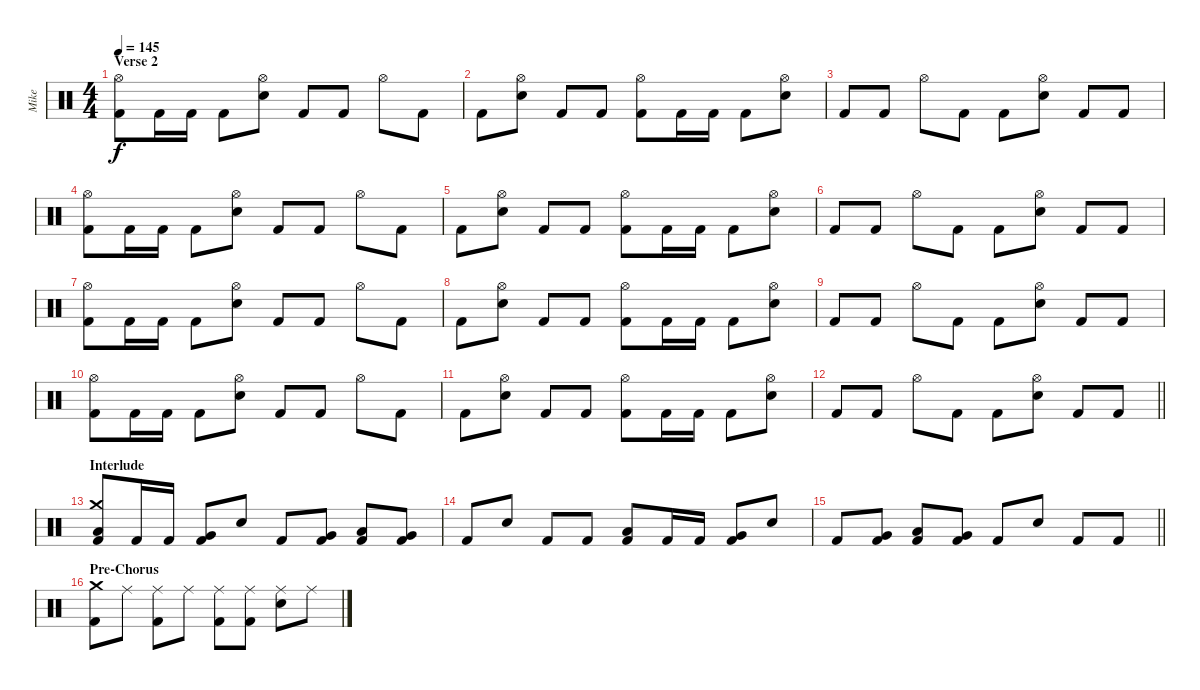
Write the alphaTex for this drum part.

\track ("Mike" "Mike") {instrument percussion}
\staff {score}
\articulation defaults
\ts (4 4)
\section ("" "Verse 2")
\tempo 145
\clef neutral
\ks c
("Hi-Hat (open)" "Kick (hit) 2").8{dy f} "Kick (hit) 2".16 "Kick (hit) 2".16 "Kick (hit) 2".8 ("Hi-Hat (open)" "Snare (hit) 2").8 "Kick (hit) 2".8 "Kick (hit) 2".8 "Hi-Hat (open)".8 "Kick (hit) 2".8 |
"Kick (hit) 2".8 ("Hi-Hat (open)" "Snare (hit) 2").8 "Kick (hit) 2".8 "Kick (hit) 2".8 ("Hi-Hat (open)" "Kick (hit) 2").8 "Kick (hit) 2".16 "Kick (hit) 2".16 "Kick (hit) 2".8 ("Hi-Hat (open)" "Snare (hit) 2").8 |
"Kick (hit) 2".8 "Kick (hit) 2".8 "Hi-Hat (open)".8 "Kick (hit) 2".8 "Kick (hit) 2".8 ("Hi-Hat (open)" "Snare (hit) 2").8 "Kick (hit) 2".8 "Kick (hit) 2".8 |
("Hi-Hat (open)" "Kick (hit) 2").8 "Kick (hit) 2".16 "Kick (hit) 2".16 "Kick (hit) 2".8 ("Hi-Hat (open)" "Snare (hit) 2").8 "Kick (hit) 2".8 "Kick (hit) 2".8 "Hi-Hat (open)".8 "Kick (hit) 2".8 |
"Kick (hit) 2".8 ("Hi-Hat (open)" "Snare (hit) 2").8 "Kick (hit) 2".8 "Kick (hit) 2".8 ("Hi-Hat (open)" "Kick (hit) 2").8 "Kick (hit) 2".16 "Kick (hit) 2".16 "Kick (hit) 2".8 ("Hi-Hat (open)" "Snare (hit) 2").8 |
"Kick (hit) 2".8 "Kick (hit) 2".8 "Hi-Hat (open)".8 "Kick (hit) 2".8 "Kick (hit) 2".8 ("Hi-Hat (open)" "Snare (hit) 2").8 "Kick (hit) 2".8 "Kick (hit) 2".8 |
("Hi-Hat (open)" "Kick (hit) 2").8 "Kick (hit) 2".16 "Kick (hit) 2".16 "Kick (hit) 2".8 ("Hi-Hat (open)" "Snare (hit) 2").8 "Kick (hit) 2".8 "Kick (hit) 2".8 "Hi-Hat (open)".8 "Kick (hit) 2".8 |
"Kick (hit) 2".8 ("Hi-Hat (open)" "Snare (hit) 2").8 "Kick (hit) 2".8 "Kick (hit) 2".8 ("Hi-Hat (open)" "Kick (hit) 2").8 "Kick (hit) 2".16 "Kick (hit) 2".16 "Kick (hit) 2".8 ("Hi-Hat (open)" "Snare (hit) 2").8 |
"Kick (hit) 2".8 "Kick (hit) 2".8 "Hi-Hat (open)".8 "Kick (hit) 2".8 "Kick (hit) 2".8 ("Hi-Hat (open)" "Snare (hit) 2").8 "Kick (hit) 2".8 "Kick (hit) 2".8 |
("Hi-Hat (open)" "Kick (hit) 2").8 "Kick (hit) 2".16 "Kick (hit) 2".16 "Kick (hit) 2".8 ("Hi-Hat (open)" "Snare (hit) 2").8 "Kick (hit) 2".8 "Kick (hit) 2".8 "Hi-Hat (open)".8 "Kick (hit) 2".8 |
"Kick (hit) 2".8 ("Hi-Hat (open)" "Snare (hit) 2").8 "Kick (hit) 2".8 "Kick (hit) 2".8 ("Hi-Hat (open)" "Kick (hit) 2").8 "Kick (hit) 2".16 "Kick (hit) 2".16 "Kick (hit) 2".8 ("Hi-Hat (open)" "Snare (hit) 2").8 |
\barLineRight lightlight "Kick (hit) 2".8 "Kick (hit) 2".8 "Hi-Hat (open)".8 "Kick (hit) 2".8 "Kick (hit) 2".8
("Hi-Hat (open)" "Snare (hit) 2").8 "Kick (hit) 2".8 "Kick (hit) 2".8 |
\section ("" "Interlude")
("Crash medium (hit)" "Low Tom (hit)" "Kick (hit) 2").8 "Kick (hit) 2".16 "Kick (hit) 2".16 ("Very Low Tom (hit)" "Kick (hit) 2").8 "Snare (hit) 2".8 "Kick (hit) 2".8 ("Very Low Tom (hit)" "Kick (hit) 2").8 ("Low Floor Tom (hit)" "Kick (hit) 2").8 ("Very Low Tom (hit)" "Kick (hit) 2").8 |
"Kick (hit) 2".8 "Snare (hit) 2".8 "Kick (hit) 2".8 "Kick (hit) 2".8 ("Low Tom (hit)" "Kick (hit) 2").8 "Kick (hit) 2".16 "Kick (hit) 2".16 ("Very Low Tom (hit)" "Kick (hit) 2").8 "Snare (hit) 2".8 |
\barLineRight lightlight "Kick (hit) 2".8
("Very Low Tom (hit)" "Kick (hit) 2").8 ("Low Floor Tom (hit)" "Kick (hit) 2").8 ("Very Low Tom (hit)" "Kick (hit) 2").8 "Kick (hit) 2".8 "Snare (hit) 2".8 "Kick (hit) 2".8 "Kick (hit) 2".8 |
\section ("" "Pre-Chorus")
("Crash medium (hit)" "Kick (hit) 2").8 "Ride (middle)".8 ("Ride (middle)" "Kick (hit) 2").8 "Ride (middle)".8 ("Ride (middle)" "Kick (hit) 2").8 ("Ride (middle)" "Kick (hit) 2").8 ("Ride (middle)" "Snare (hit) 2").8 "Ride (middle)".8
